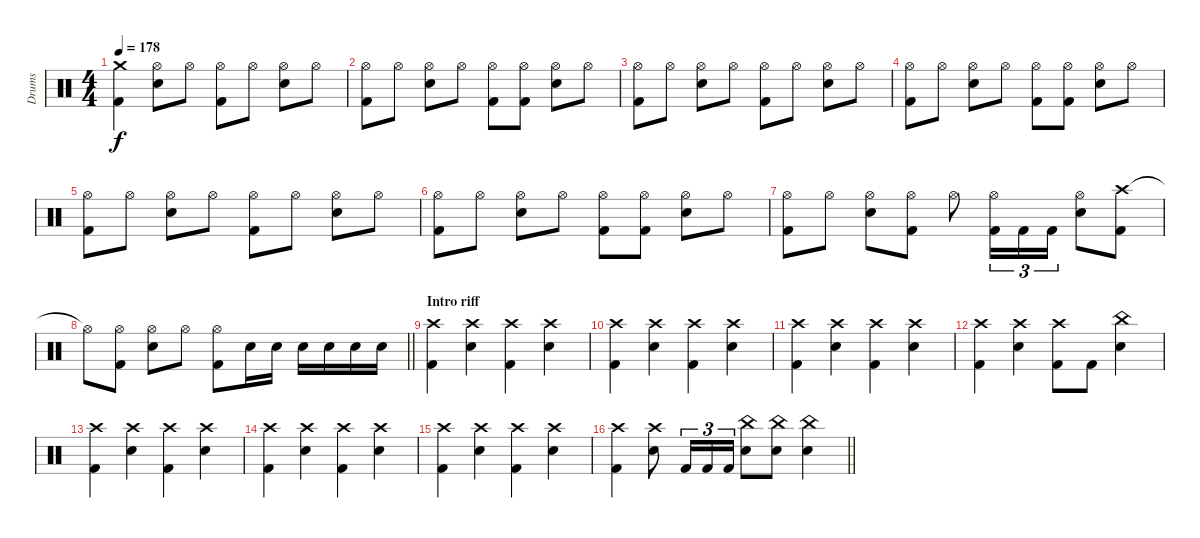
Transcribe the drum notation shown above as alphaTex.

\track ("Drums" "Drums") {instrument percussion}
\staff {score}
\articulation defaults
\ts (4 4)
\tempo 178
\clef neutral
\ks c
("Crash medium (hit)" "Kick (hit) 2").4{dy f} ("Hi-Hat (open)" "Electric Snare (hit)").8 "Hi-Hat (open)".8 ("Hi-Hat (open)" "Kick (hit) 2").8 "Hi-Hat (open)".8 ("Hi-Hat (open)" "Electric Snare (hit)").8 "Hi-Hat (open)".8 |
("Hi-Hat (open)" "Kick (hit) 2").8 "Hi-Hat (open)".8 ("Hi-Hat (open)" "Electric Snare (hit)").8 "Hi-Hat (open)".8 ("Hi-Hat (open)" "Kick (hit) 2").8 ("Hi-Hat (open)" "Kick (hit) 2").8 ("Hi-Hat (open)" "Electric Snare (hit)").8 "Hi-Hat (open)".8 |
("Hi-Hat (open)" "Kick (hit) 2").8 "Hi-Hat (open)".8 ("Hi-Hat (open)" "Electric Snare (hit)").8 "Hi-Hat (open)".8 ("Hi-Hat (open)" "Kick (hit) 2").8 "Hi-Hat (open)".8 ("Hi-Hat (open)" "Electric Snare (hit)").8 "Hi-Hat (open)".8 |
("Hi-Hat (open)" "Kick (hit) 2").8 "Hi-Hat (open)".8 ("Hi-Hat (open)" "Electric Snare (hit)").8 "Hi-Hat (open)".8 ("Hi-Hat (open)" "Kick (hit) 2").8 ("Hi-Hat (open)" "Kick (hit) 2").8 ("Hi-Hat (open)" "Electric Snare (hit)").8 "Hi-Hat (open)".8 |
("Hi-Hat (open)" "Kick (hit) 2").8 "Hi-Hat (open)".8 ("Hi-Hat (open)" "Electric Snare (hit)").8 "Hi-Hat (open)".8 ("Hi-Hat (open)" "Kick (hit) 2").8 "Hi-Hat (open)".8 ("Hi-Hat (open)" "Electric Snare (hit)").8 "Hi-Hat (open)".8 |
("Hi-Hat (open)" "Kick (hit) 2").8 "Hi-Hat (open)".8 ("Hi-Hat (open)" "Electric Snare (hit)").8 "Hi-Hat (open)".8 ("Hi-Hat (open)" "Kick (hit) 2").8 ("Hi-Hat (open)" "Kick (hit) 2").8 ("Hi-Hat (open)" "Electric Snare (hit)").8 "Hi-Hat (open)".8 |
("Hi-Hat (open)" "Kick (hit) 2").8 "Hi-Hat (open)".8 ("Hi-Hat (open)" "Electric Snare (hit)").8 ("Hi-Hat (open)" "Kick (hit) 2").8 "Hi-Hat (open)".8 ("Hi-Hat (open)" "Kick (hit) 2").16{tu (3 2)} "Kick (hit) 2".16{tu (3 2)} "Kick (hit) 2".16{tu (3 2)} ("Hi-Hat (open)" "Electric Snare (hit)").8 ("Crash high (hit)" "Kick (hit) 2").8 |
\barLineRight lightlight "Hi-Hat (open)"{t}.8
("Hi-Hat (open)" "Kick (hit) 2").8 ("Hi-Hat (open)" "Electric Snare (hit)").8 "Hi-Hat (open)".8 ("Hi-Hat (open)" "Kick (hit) 2").8 "Electric Snare (hit)".16 "Electric Snare (hit)".16 "Electric Snare (hit)".16 "Electric Snare (hit)".16 "Electric Snare (hit)".16 "Electric Snare (hit)".16 |
\section ("" "Intro riff")
("Crash high (hit)" "Kick (hit) 2").4 ("Crash high (hit)" "Electric Snare (hit)").4 ("Crash high (hit)" "Kick (hit) 2").4 ("Crash high (hit)" "Electric Snare (hit)").4 |
("Crash high (hit)" "Kick (hit) 2").4 ("Crash high (hit)" "Electric Snare (hit)").4 ("Crash high (hit)" "Kick (hit) 2").4 ("Crash high (hit)" "Electric Snare (hit)").4 |
("Crash high (hit)" "Kick (hit) 2").4 ("Crash high (hit)" "Electric Snare (hit)").4 ("Crash high (hit)" "Kick (hit) 2").4 ("Crash high (hit)" "Electric Snare (hit)").4 |
("Crash high (hit)" "Kick (hit) 2").4 ("Crash high (hit)" "Electric Snare (hit)").4 ("Crash high (hit)" "Kick (hit) 2").8 "Kick (hit) 2".8 ("China (hit)" "Electric Snare (hit)").4 |
("Crash high (hit)" "Kick (hit) 2").4 ("Crash high (hit)" "Electric Snare (hit)").4 ("Crash high (hit)" "Kick (hit) 2").4 ("Crash high (hit)" "Electric Snare (hit)").4 |
("Crash high (hit)" "Kick (hit) 2").4 ("Crash high (hit)" "Electric Snare (hit)").4 ("Crash high (hit)" "Kick (hit) 2").4 ("Crash high (hit)" "Electric Snare (hit)").4 |
("Crash high (hit)" "Kick (hit) 2").4 ("Crash high (hit)" "Electric Snare (hit)").4 ("Crash high (hit)" "Kick (hit) 2").4 ("Crash high (hit)" "Electric Snare (hit)").4 |
\barLineRight lightlight
("Crash high (hit)" "Kick (hit) 2").4 ("Crash high (hit)" "Electric Snare (hit)").8 "Kick (hit) 2".16{tu (3 2)} "Kick (hit) 2".16{tu (3 2)} "Kick (hit) 2".16{tu (3 2)} ("China (hit)" "Electric Snare (hit)").8 ("China (hit)" "Electric Snare (hit)").8 ("China (hit)" "Electric Snare (hit)").4
